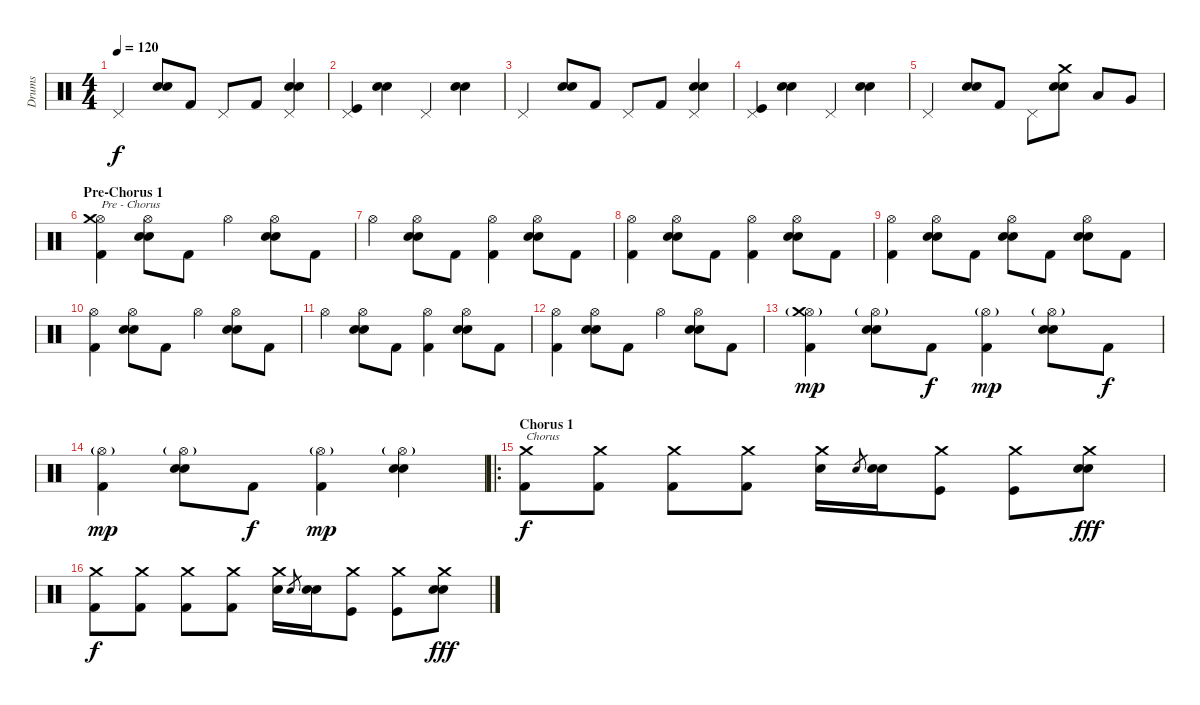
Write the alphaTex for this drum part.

\track ("Drums" "Drums") {instrument percussion}
\staff {score}
\articulation defaults
\ts (4 4)
\tempo 120
\clef neutral
\ks c "Pedal Hi-Hat (hit)".4{dy f}
("Electric Snare (hit)" "Snare (hit) 2").8 "Kick (hit) 2".8 "Pedal Hi-Hat (hit)".8 "Kick (hit) 2".8 ("Electric Snare (hit)" "Snare (hit) 2" "Pedal Hi-Hat (hit)").4 |
("Pedal Hi-Hat (hit)" "Kick (hit)").4 ("Electric Snare (hit)" "Snare (hit) 2").4 "Pedal Hi-Hat (hit)".4 ("Snare (hit) 2" "Electric Snare (hit)").4 |
"Pedal Hi-Hat (hit)".4 ("Electric Snare (hit)" "Snare (hit) 2").8 "Kick (hit) 2".8 "Pedal Hi-Hat (hit)".8 "Kick (hit) 2".8 ("Electric Snare (hit)" "Snare (hit) 2" "Pedal Hi-Hat (hit)").4 |
("Pedal Hi-Hat (hit)" "Kick (hit)").4 ("Electric Snare (hit)" "Snare (hit) 2").4 "Pedal Hi-Hat (hit)".4 ("Snare (hit) 2" "Electric Snare (hit)").4 |
"Pedal Hi-Hat (hit)".4 ("Electric Snare (hit)" "Snare (hit) 2").8 "Kick (hit) 2".8 "Pedal Hi-Hat (hit)".8 ("Crash medium (hit)" "Electric Snare (hit)" "Snare (hit) 2").8 "Low Tom (hit)".8 "Very Low Tom (hit)".8 |
\section ("" "Pre-Chorus 1")
("Hi-Hat (open)" "Crash medium (hit)" "Kick (hit) 2").4{txt "Pre - Chorus"} ("Electric Snare (hit)" "Snare (hit) 2" "Hi-Hat (open)").8 "Kick (hit) 2".8 "Hi-Hat (open)".4 ("Electric Snare (hit)" "Snare (hit) 2" "Hi-Hat (open)").8 "Kick (hit) 2".8 |
"Hi-Hat (open)".4 ("Hi-Hat (open)" "Electric Snare (hit)" "Snare (hit) 2").8 "Kick (hit) 2".8 ("Hi-Hat (open)" "Kick (hit) 2").4 ("Electric Snare (hit)" "Snare (hit) 2" "Hi-Hat (open)").8 "Kick (hit) 2".8 |
("Hi-Hat (open)" "Kick (hit) 2").4 ("Electric Snare (hit)" "Snare (hit) 2" "Hi-Hat (open)").8 "Kick (hit) 2".8 ("Hi-Hat (open)" "Kick (hit) 2").4 ("Electric Snare (hit)" "Snare (hit) 2" "Hi-Hat (open)").8 "Kick (hit) 2".8 |
("Hi-Hat (open)" "Kick (hit) 2").4 ("Electric Snare (hit)" "Snare (hit) 2" "Hi-Hat (open)").8 "Kick (hit) 2".8 ("Electric Snare (hit)" "Snare (hit) 2" "Hi-Hat (open)").8 "Kick (hit) 2".8 ("Electric Snare (hit)" "Snare (hit) 2" "Hi-Hat (open)").8 "Kick (hit) 2".8 |
("Hi-Hat (open)" "Kick (hit) 2").4 ("Electric Snare (hit)" "Snare (hit) 2" "Hi-Hat (open)").8 "Kick (hit) 2".8 "Hi-Hat (open)".4 ("Electric Snare (hit)" "Snare (hit) 2" "Hi-Hat (open)").8 "Kick (hit) 2".8 |
"Hi-Hat (open)".4 ("Hi-Hat (open)" "Electric Snare (hit)" "Snare (hit) 2").8 "Kick (hit) 2".8 ("Hi-Hat (open)" "Kick (hit) 2").4 ("Electric Snare (hit)" "Snare (hit) 2" "Hi-Hat (open)").8 "Kick (hit) 2".8 |
("Hi-Hat (open)" "Kick (hit) 2").4 ("Electric Snare (hit)" "Snare (hit) 2" "Hi-Hat (open)").8 "Kick (hit) 2".8 "Hi-Hat (open)".4 ("Electric Snare (hit)" "Snare (hit) 2" "Hi-Hat (open)").8 "Kick (hit) 2".8 |
("Hi-Hat (open)"{g} "Crash medium (hit)" "Kick (hit) 2").4{dy mp} ("Electric Snare (hit)" "Snare (hit) 2" "Hi-Hat (open)"{g}).8 "Kick (hit) 2".8{dy f} ("Hi-Hat (open)"{g} "Kick (hit) 2").4{dy mp} ("Electric Snare (hit)" "Snare (hit) 2" "Hi-Hat (open)"{g}).8 "Kick (hit) 2".8{dy f} |
("Hi-Hat (open)"{g} "Kick (hit) 2").4{dy mp} ("Electric Snare (hit)" "Snare (hit) 2" "Hi-Hat (open)"{g}).8 "Kick (hit) 2".8{dy f} ("Hi-Hat (open)"{g} "Kick (hit) 2").4{dy mp} ("Electric Snare (hit)" "Snare (hit) 2" "Hi-Hat (open)"{g}).4 |
\ro
\section ("" "Chorus 1")
("Crash medium (hit)" "Kick (hit) 2").8{txt "Chorus" dy f} ("Crash medium (hit)" "Kick (hit) 2").8 ("Crash medium (hit)" "Kick (hit) 2").8 ("Crash medium (hit)" "Kick (hit) 2").8 ("Crash medium (hit)" "Electric Snare (hit)").16 "Electric Snare (hit)".8{gr} ("Electric Snare (hit)" "Snare (hit) 2").16 ("Crash medium (hit)" "Kick (hit)").8 ("Crash medium (hit)" "Kick (hit)").8 ("Crash medium (hit)" "Electric Snare (hit)" "Snare (hit) 2").8{dy fff} |
("Crash medium (hit)" "Kick (hit) 2").8{dy f} ("Crash medium (hit)" "Kick (hit) 2").8 ("Crash medium (hit)" "Kick (hit) 2").8 ("Crash medium (hit)" "Kick (hit) 2").8 ("Crash medium (hit)" "Electric Snare (hit)").16 "Electric Snare (hit)".8{gr} ("Electric Snare (hit)" "Snare (hit) 2").16 ("Crash medium (hit)" "Kick (hit)").8 ("Crash medium (hit)" "Kick (hit)").8 ("Crash medium (hit)" "Electric Snare (hit)" "Snare (hit) 2").8{dy fff}
